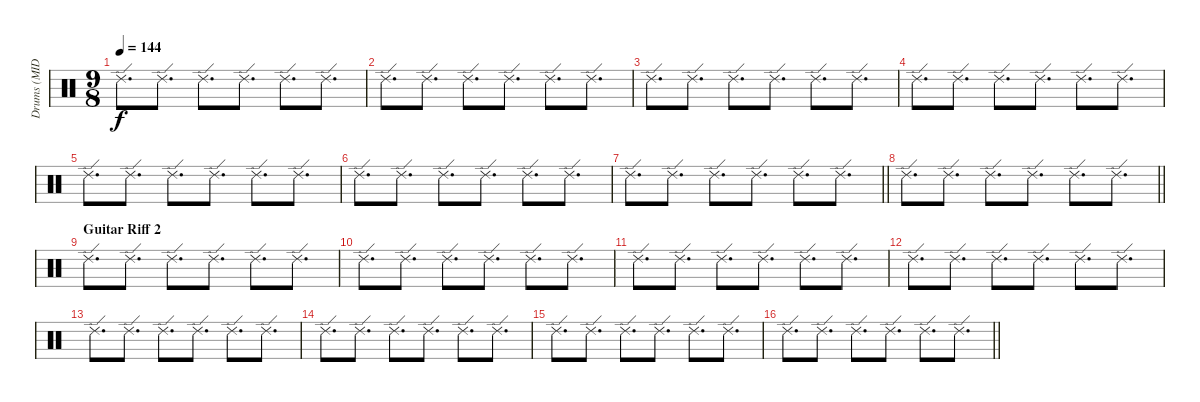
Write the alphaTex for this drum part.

\track ("Drums (MIDI!)" "Drums (MID") {instrument percussion}
\staff {score}
\articulation defaults
\ts (9 8)
\tempo 144
\clef neutral
\ks c "Ride (edge) 2".8{d dy f} "Ride (edge) 2".8{d} "Ride (edge) 2".8{d} "Ride (edge) 2".8{d} "Ride (edge) 2".8{d} "Ride (edge) 2".8{d}
|
"Ride (edge) 2".8{d} "Ride (edge) 2".8{d} "Ride (edge) 2".8{d} "Ride (edge) 2".8{d} "Ride (edge) 2".8{d} "Ride (edge) 2".8{d} |
"Ride (edge) 2".8{d} "Ride (edge) 2".8{d} "Ride (edge) 2".8{d} "Ride (edge) 2".8{d} "Ride (edge) 2".8{d} "Ride (edge) 2".8{d} |
"Ride (edge) 2".8{d} "Ride (edge) 2".8{d} "Ride (edge) 2".8{d} "Ride (edge) 2".8{d} "Ride (edge) 2".8{d} "Ride (edge) 2".8{d} |
"Ride (edge) 2".8{d} "Ride (edge) 2".8{d} "Ride (edge) 2".8{d} "Ride (edge) 2".8{d} "Ride (edge) 2".8{d} "Ride (edge) 2".8{d} |
"Ride (edge) 2".8{d} "Ride (edge) 2".8{d} "Ride (edge) 2".8{d} "Ride (edge) 2".8{d} "Ride (edge) 2".8{d} "Ride (edge) 2".8{d} |
\barLineRight lightlight "Ride (edge) 2".8{d} "Ride (edge) 2".8{d} "Ride (edge) 2".8{d} "Ride (edge) 2".8{d} "Ride (edge) 2".8{d} "Ride (edge) 2".8{d}
|
\barLineRight lightlight "Ride (edge) 2".8{d} "Ride (edge) 2".8{d} "Ride (edge) 2".8{d} "Ride (edge) 2".8{d} "Ride (edge) 2".8{d} "Ride (edge) 2".8{d}
|
\section ("" "Guitar Riff 2")
"Ride (edge) 2".8{d} "Ride (edge) 2".8{d} "Ride (edge) 2".8{d} "Ride (edge) 2".8{d} "Ride (edge) 2".8{d} "Ride (edge) 2".8{d} |
"Ride (edge) 2".8{d} "Ride (edge) 2".8{d} "Ride (edge) 2".8{d} "Ride (edge) 2".8{d} "Ride (edge) 2".8{d} "Ride (edge) 2".8{d} |
"Ride (edge) 2".8{d} "Ride (edge) 2".8{d} "Ride (edge) 2".8{d} "Ride (edge) 2".8{d} "Ride (edge) 2".8{d} "Ride (edge) 2".8{d} |
"Ride (edge) 2".8{d} "Ride (edge) 2".8{d} "Ride (edge) 2".8{d} "Ride (edge) 2".8{d} "Ride (edge) 2".8{d} "Ride (edge) 2".8{d} |
"Ride (edge) 2".8{d} "Ride (edge) 2".8{d} "Ride (edge) 2".8{d} "Ride (edge) 2".8{d} "Ride (edge) 2".8{d} "Ride (edge) 2".8{d} |
"Ride (edge) 2".8{d} "Ride (edge) 2".8{d} "Ride (edge) 2".8{d} "Ride (edge) 2".8{d} "Ride (edge) 2".8{d} "Ride (edge) 2".8{d} |
"Ride (edge) 2".8{d} "Ride (edge) 2".8{d} "Ride (edge) 2".8{d} "Ride (edge) 2".8{d} "Ride (edge) 2".8{d} "Ride (edge) 2".8{d} |
\barLineRight lightlight "Ride (edge) 2".8{d} "Ride (edge) 2".8{d} "Ride (edge) 2".8{d} "Ride (edge) 2".8{d} "Ride (edge) 2".8{d} "Ride (edge) 2".8{d}
